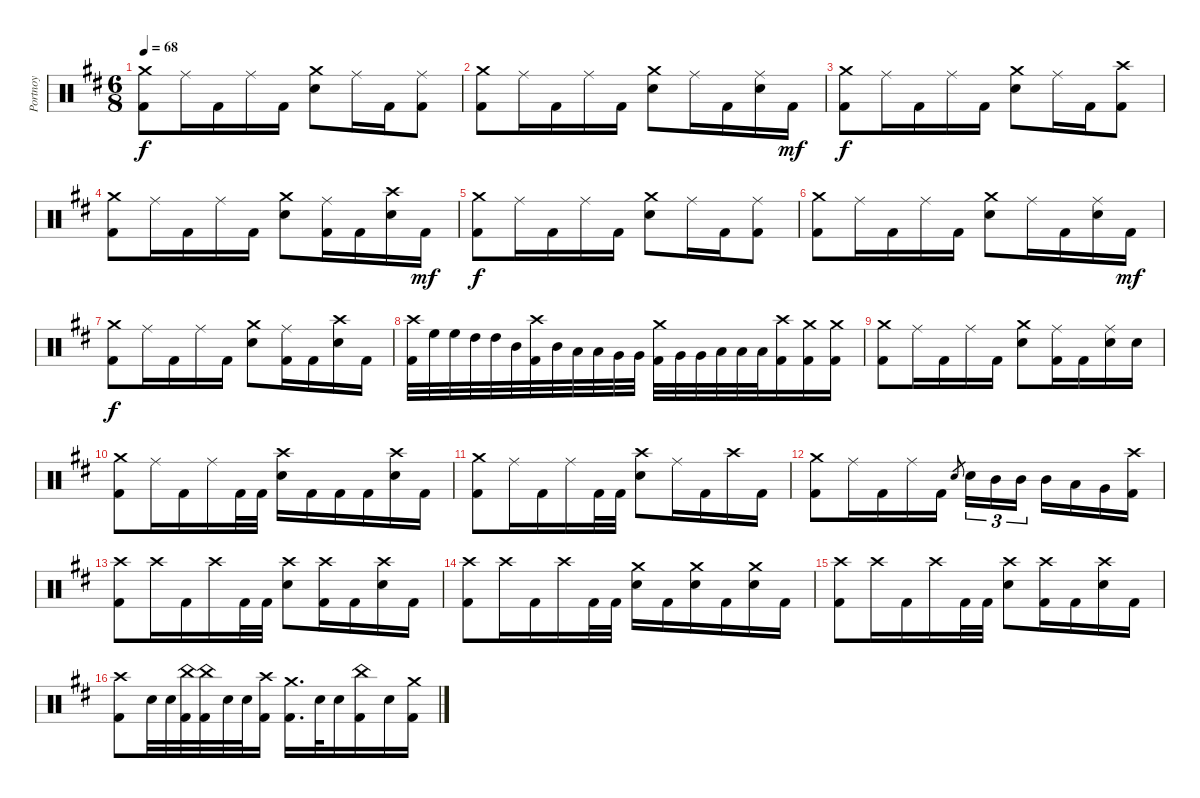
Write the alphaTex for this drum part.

\track ("Portnoy" "Portnoy") {instrument percussion}
\staff {score}
\articulation defaults
\ts (6 8)
\tempo 68
\clef neutral
\ks d
("Crash medium (hit)" "Kick (hit) 2").8{dy f} "Ride (middle)".16 "Kick (hit) 2".16 "Ride (middle)".16 "Kick (hit) 2".16 ("Crash medium (hit)" "Snare (hit) 2").8 "Ride (middle)".16 "Kick (hit) 2".16 ("Ride (middle)" "Kick (hit) 2").8 |
("Crash medium (hit)" "Kick (hit) 2").8 "Ride (middle)".16 "Kick (hit) 2".16 "Ride (middle)".16 "Kick (hit) 2".16 ("Crash medium (hit)" "Snare (hit) 2").8 "Ride (middle)".16 "Kick (hit) 2".16 ("Ride (middle)" "Snare (hit) 2").16 "Kick (hit) 2".16{dy mf} |
("Crash medium (hit)" "Kick (hit) 2").8{dy f} "Ride (middle)".16 "Kick (hit) 2".16 "Ride (middle)".16 "Kick (hit) 2".16 ("Crash medium (hit)" "Snare (hit) 2").8 "Ride (middle)".16 "Kick (hit) 2".16 ("Crash high (hit)" "Kick (hit) 2").8 |
("Crash medium (hit)" "Kick (hit) 2").8 "Ride (middle)".16 "Kick (hit) 2".16 "Ride (middle)".16 "Kick (hit) 2".16 ("Crash medium (hit)" "Snare (hit) 2").8 ("Ride (middle)" "Kick (hit) 2").16 "Kick (hit) 2".16 ("Snare (hit) 2" "Crash high (hit)").16 "Kick (hit) 2".16{dy mf} |
("Crash medium (hit)" "Kick (hit) 2").8{dy f} "Ride (middle)".16 "Kick (hit) 2".16 "Ride (middle)".16 "Kick (hit) 2".16 ("Crash medium (hit)" "Snare (hit) 2").8 "Ride (middle)".16 "Kick (hit) 2".16 ("Ride (middle)" "Kick (hit) 2").8 |
("Crash medium (hit)" "Kick (hit) 2").8 "Ride (middle)".16 "Kick (hit) 2".16 "Ride (middle)".16 "Kick (hit) 2".16 ("Crash medium (hit)" "Snare (hit) 2").8 "Ride (middle)".16 "Kick (hit) 2".16 ("Ride (middle)" "Snare (hit) 2").16 "Kick (hit) 2".16{dy mf} |
("Crash medium (hit)" "Kick (hit) 2").8{dy f} "Ride (middle)".16 "Kick (hit) 2".16 "Ride (middle)".16 "Kick (hit) 2".16 ("Crash medium (hit)" "Snare (hit) 2").8 ("Ride (middle)" "Kick (hit) 2").16 "Kick (hit) 2".16 ("Crash high (hit)" "Snare (hit) 2").16 "Kick (hit) 2".16 |
("Crash high (hit)" "Kick (hit) 2").32 "High Floor Tom (hit)".32 "High Floor Tom (hit)".32 "High Tom (hit)".32 "High Tom (hit)".32 "Mid Tom (hit)".32 ("Crash high (hit)" "Kick (hit) 2").32 "Mid Tom (hit)".32 "Low Tom (hit)".32 "Low Tom (hit)".32 "Very Low Tom (hit)".32 "Very Low Tom (hit)".32 ("Crash medium (hit)" "Kick (hit) 2").32 "Very Low Tom (hit)".32 "Very Low Tom (hit)".32 "Low Floor Tom (hit)".32 "Low Floor Tom (hit)".32 "Low Floor Tom (hit)".32 ("Crash high (hit)" "Kick (hit) 2").16 ("Crash medium (hit)" "Kick (hit) 2").16 ("Crash medium (hit)" "Kick (hit) 2").16 |
("Crash medium (hit)" "Kick (hit) 2").8 "Ride (middle)".16 "Kick (hit) 2".16 "Ride (middle)".16 "Kick (hit) 2".16 ("Crash medium (hit)" "Snare (hit) 2").8 ("Ride (middle)" "Kick (hit) 2").16 "Kick (hit) 2".16 ("Ride (middle)" "Snare (hit) 2").16 "Snare (hit) 2".16 |
("Crash medium (hit)" "Kick (hit) 2").8 "Ride (middle)".16 "Kick (hit) 2".16 "Ride (middle)".16 "Kick (hit) 2".32 "Kick (hit) 2".32 ("Crash high (hit)" "Snare (hit) 2").16 "Kick (hit) 2".16 "Kick (hit) 2".16 "Kick (hit) 2".16 ("Snare (hit) 2" "Crash high (hit)").16 "Kick (hit) 2".16 |
("Crash medium (hit)" "Kick (hit) 2").8 "Ride (middle)".16 "Kick (hit) 2".16 "Ride (middle)".16 "Kick (hit) 2".32 "Kick (hit) 2".32 ("Crash high (hit)" "Snare (hit) 2").8 "Ride (middle)".16 "Kick (hit) 2".16 "Crash high (hit)".16 "Kick (hit) 2".16 |
("Crash medium (hit)" "Kick (hit) 2").8 "Ride (middle)".16 "Kick (hit) 2".16 "Ride (middle)".16 "Kick (hit) 2".16 "Snare (hit) 2".8{gr} "Snare (hit) 2".16{tu (3 2)} "Mid Tom (hit)".16{tu (3 2)} "Mid Tom (hit)".16{tu (3 2) beam splitsecondary} "Mid Tom (hit)".16 "Low Tom (hit)".16 "Very Low Tom (hit)".16 ("Kick (hit) 2" "Crash high (hit)").16 |
("Crash high (hit)" "Kick (hit) 2").8 "Crash high (hit)".16 "Kick (hit) 2".16 "Crash high (hit)".16 "Kick (hit) 2".32 "Kick (hit) 2".32 ("Crash high (hit)" "Snare (hit) 2").8 ("Crash high (hit)" "Kick (hit) 2").16 "Kick (hit) 2".16 ("Crash high (hit)" "Snare (hit) 2").16 "Kick (hit) 2".16 |
("Crash high (hit)" "Kick (hit) 2").8 "Crash high (hit)".16 "Kick (hit) 2".16 "Crash high (hit)".16 "Kick (hit) 2".32 "Kick (hit) 2".32 ("Crash medium (hit)" "Snare (hit) 2").16 "Kick (hit) 2".16 ("Snare (hit) 2" "Crash medium (hit)").16 "Kick (hit) 2".16 ("Snare (hit) 2" "Crash medium (hit)").16 "Kick (hit) 2".16 |
("Crash high (hit)" "Kick (hit) 2").8 "Crash high (hit)".16 "Kick (hit) 2".16 "Crash high (hit)".16 "Kick (hit) 2".32 "Kick (hit) 2".32 ("Crash high (hit)" "Snare (hit) 2").8 ("Crash high (hit)" "Kick (hit) 2").16 "Kick (hit) 2".16 ("Crash high (hit)" "Snare (hit) 2").16 "Kick (hit) 2".16 |
("Crash high (hit)" "Kick (hit) 2").8 "Snare (hit) 2".32 "Snare (hit) 2".32 ("Kick (hit) 2" "China (hit)").32 ("China (hit)" "Kick (hit) 2").32 "Snare (hit) 2".32 "Snare (hit) 2".32 ("Crash high (hit)" "Kick (hit) 2").16 ("Crash medium (hit)" "Kick (hit) 2").16{d} "Snare (hit) 2".32 "Snare (hit) 2".16 ("China (hit)" "Kick (hit) 2").16 "Snare (hit) 2".16 ("Kick (hit) 2" "Crash medium (hit)").16
